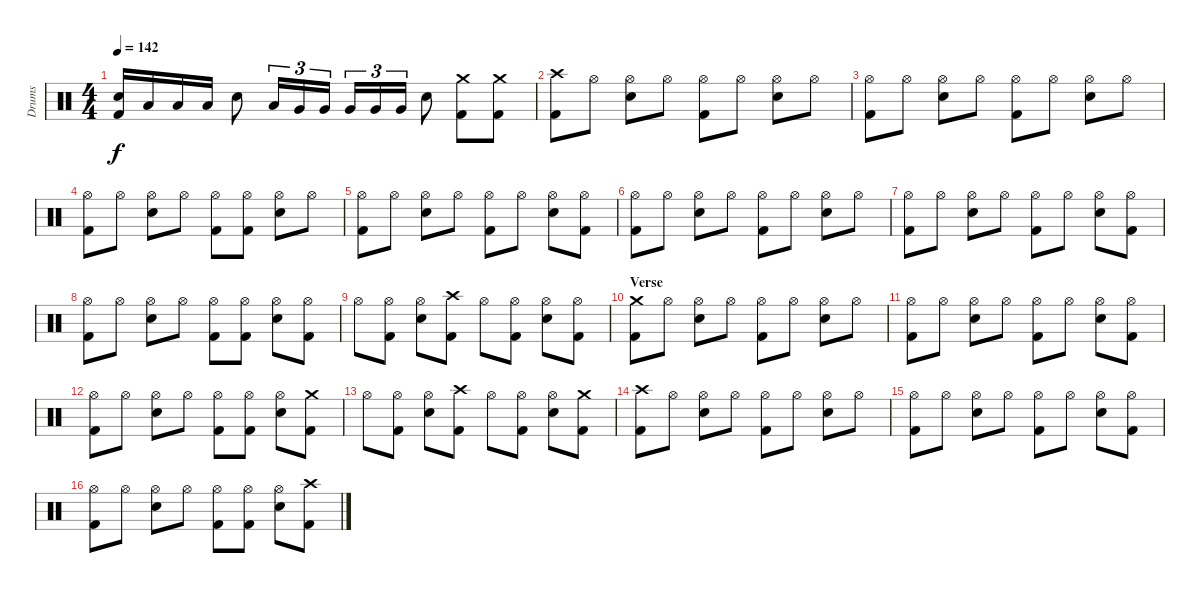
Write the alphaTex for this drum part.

\track ("Drums" "Drums") {instrument percussion}
\staff {score}
\articulation defaults
\ts (4 4)
\tempo 142
\clef neutral
\ks c
("Snare (hit) 2" "Kick (hit) 2").16{dy f} "Low Tom (hit)".16 "Low Tom (hit)".16 "Low Tom (hit)".16 "Snare (hit) 2".8 "Low Tom (hit)".16{tu (3 2)} "Very Low Tom (hit)".16{tu (3 2)} "Very Low Tom (hit)".16{tu (3 2)} "Very Low Tom (hit)".16{tu (3 2)} "Very Low Tom (hit)".16{tu (3 2)} "Very Low Tom (hit)".16{tu (3 2)} "Snare (hit) 2".8 ("Crash medium (hit)" "Kick (hit) 2").8 ("Crash medium (hit)" "Kick (hit) 2").8 |
("Crash high (hit)" "Kick (hit) 2").8 "Hi-Hat (open)".8 ("Hi-Hat (open)" "Snare (hit) 2").8 "Hi-Hat (open)".8 ("Hi-Hat (open)" "Kick (hit) 2").8 "Hi-Hat (open)".8 ("Hi-Hat (open)" "Snare (hit) 2").8 "Hi-Hat (open)".8 |
("Hi-Hat (open)" "Kick (hit) 2").8 "Hi-Hat (open)".8 ("Hi-Hat (open)" "Snare (hit) 2").8 "Hi-Hat (open)".8 ("Hi-Hat (open)" "Kick (hit) 2").8 "Hi-Hat (open)".8 ("Hi-Hat (open)" "Snare (hit) 2").8 "Hi-Hat (open)".8 |
("Hi-Hat (open)" "Kick (hit) 2").8 "Hi-Hat (open)".8 ("Hi-Hat (open)" "Snare (hit) 2").8 "Hi-Hat (open)".8 ("Hi-Hat (open)" "Kick (hit) 2").8 ("Hi-Hat (open)" "Kick (hit) 2").8 ("Hi-Hat (open)" "Snare (hit) 2").8 "Hi-Hat (open)".8 |
("Hi-Hat (open)" "Kick (hit) 2").8 "Hi-Hat (open)".8 ("Hi-Hat (open)" "Snare (hit) 2").8 "Hi-Hat (open)".8 ("Hi-Hat (open)" "Kick (hit) 2").8 "Hi-Hat (open)".8 ("Hi-Hat (open)" "Snare (hit) 2").8 ("Hi-Hat (open)" "Kick (hit) 2").8 |
("Hi-Hat (open)" "Kick (hit) 2").8 "Hi-Hat (open)".8 ("Hi-Hat (open)" "Snare (hit) 2").8 "Hi-Hat (open)".8 ("Hi-Hat (open)" "Kick (hit) 2").8 "Hi-Hat (open)".8 ("Hi-Hat (open)" "Snare (hit) 2").8 "Hi-Hat (open)".8 |
("Hi-Hat (open)" "Kick (hit) 2").8 "Hi-Hat (open)".8 ("Hi-Hat (open)" "Snare (hit) 2").8 "Hi-Hat (open)".8 ("Hi-Hat (open)" "Kick (hit) 2").8 "Hi-Hat (open)".8 ("Hi-Hat (open)" "Snare (hit) 2").8 ("Hi-Hat (open)" "Kick (hit) 2").8 |
("Hi-Hat (open)" "Kick (hit) 2").8 "Hi-Hat (open)".8 ("Hi-Hat (open)" "Snare (hit) 2").8 "Hi-Hat (open)".8 ("Hi-Hat (open)" "Kick (hit) 2").8 ("Hi-Hat (open)" "Kick (hit) 2").8 ("Hi-Hat (open)" "Snare (hit) 2").8 ("Hi-Hat (open)" "Kick (hit) 2").8 |
"Hi-Hat (open)".8 ("Hi-Hat (open)" "Kick (hit) 2").8 ("Hi-Hat (open)" "Snare (hit) 2").8 ("Crash high (hit)" "Kick (hit) 2").8 "Hi-Hat (open)".8 ("Hi-Hat (open)" "Kick (hit) 2").8 ("Hi-Hat (open)" "Snare (hit) 2").8 ("Hi-Hat (open)" "Kick (hit) 2").8 |
\section ("" "Verse")
("Crash medium (hit)" "Kick (hit) 2").8 "Hi-Hat (open)".8 ("Hi-Hat (open)" "Snare (hit) 2").8 "Hi-Hat (open)".8 ("Hi-Hat (open)" "Kick (hit) 2").8 "Hi-Hat (open)".8 ("Hi-Hat (open)" "Snare (hit) 2").8 "Hi-Hat (open)".8 |
("Hi-Hat (open)" "Kick (hit) 2").8 "Hi-Hat (open)".8 ("Hi-Hat (open)" "Snare (hit) 2").8 "Hi-Hat (open)".8 ("Hi-Hat (open)" "Kick (hit) 2").8 "Hi-Hat (open)".8 ("Hi-Hat (open)" "Snare (hit) 2").8 ("Hi-Hat (open)" "Kick (hit) 2").8 |
("Hi-Hat (open)" "Kick (hit) 2").8 "Hi-Hat (open)".8 ("Hi-Hat (open)" "Snare (hit) 2").8 "Hi-Hat (open)".8 ("Hi-Hat (open)" "Kick (hit) 2").8 ("Hi-Hat (open)" "Kick (hit) 2").8 ("Hi-Hat (open)" "Snare (hit) 2").8 ("Crash medium (hit)" "Kick (hit) 2").8 |
"Hi-Hat (open)".8 ("Hi-Hat (open)" "Kick (hit) 2").8 ("Hi-Hat (open)" "Snare (hit) 2").8 ("Crash high (hit)" "Kick (hit) 2").8 "Hi-Hat (open)".8 ("Hi-Hat (open)" "Kick (hit) 2").8 ("Hi-Hat (open)" "Snare (hit) 2").8 ("Crash medium (hit)" "Kick (hit) 2").8 |
("Crash high (hit)" "Kick (hit) 2").8 "Hi-Hat (open)".8 ("Hi-Hat (open)" "Snare (hit) 2").8 "Hi-Hat (open)".8 ("Hi-Hat (open)" "Kick (hit) 2").8 "Hi-Hat (open)".8 ("Hi-Hat (open)" "Snare (hit) 2").8 "Hi-Hat (open)".8 |
("Hi-Hat (open)" "Kick (hit) 2").8 "Hi-Hat (open)".8 ("Hi-Hat (open)" "Snare (hit) 2").8 "Hi-Hat (open)".8 ("Hi-Hat (open)" "Kick (hit) 2").8 "Hi-Hat (open)".8 ("Hi-Hat (open)" "Snare (hit) 2").8 ("Hi-Hat (open)" "Kick (hit) 2").8 |
("Hi-Hat (open)" "Kick (hit) 2").8 "Hi-Hat (open)".8 ("Hi-Hat (open)" "Snare (hit) 2").8 "Hi-Hat (open)".8 ("Hi-Hat (open)" "Kick (hit) 2").8 ("Hi-Hat (open)" "Kick (hit) 2").8 ("Hi-Hat (open)" "Snare (hit) 2").8 ("Crash high (hit)" "Kick (hit) 2").8
